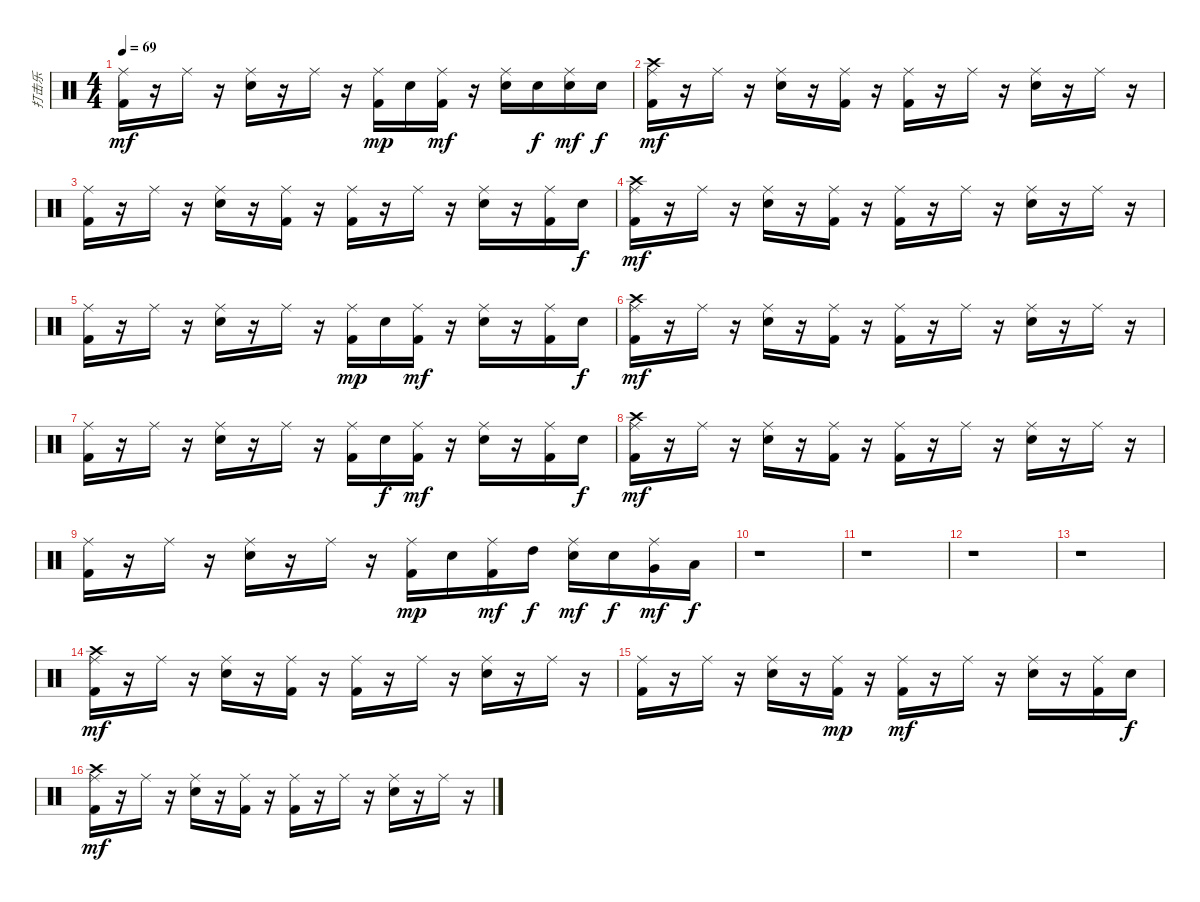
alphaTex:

\track ("打击乐" "打击乐") {instrument percussion}
\staff {score}
\articulation defaults
\ts (4 4)
\tempo 69
\clef neutral
\ks c
("Kick (hit) 2" "Ride (middle)").16{dy mf} r.16 "Ride (middle)".16 r.16 ("Electric Snare (hit)" "Ride (middle)").16 r.16 "Ride (middle)".16 r.16 ("Ride (middle)" "Kick (hit) 2").16{dy mp} "Electric Snare (hit)".16 ("Kick (hit) 2" "Ride (middle)").16{dy mf} r.16 ("Electric Snare (hit)" "Ride (middle)").16 "Electric Snare (hit)".16{dy f} ("Electric Snare (hit)" "Ride (middle)").16{dy mf} "Electric Snare (hit)".16{dy f} |
("Ride (middle)" "Kick (hit) 2" "Crash high (hit)").16{dy mf} r.16 "Ride (middle)".16 r.16 ("Electric Snare (hit)" "Ride (middle)").16 r.16 ("Ride (middle)" "Kick (hit) 2").16 r.16 ("Ride (middle)" "Kick (hit) 2").16 r.16 "Ride (middle)".16 r.16 ("Electric Snare (hit)" "Ride (middle)").16 r.16 "Ride (middle)".16 r.16 |
("Ride (middle)" "Kick (hit) 2").16 r.16 "Ride (middle)".16 r.16 ("Ride (middle)" "Electric Snare (hit)").16 r.16 ("Kick (hit) 2" "Ride (middle)").16 r.16 ("Kick (hit) 2" "Ride (middle)").16 r.16 "Ride (middle)".16 r.16 ("Electric Snare (hit)" "Ride (middle)").16 r.16 ("Kick (hit) 2" "Ride (middle)").16 "Electric Snare (hit)".16{dy f} |
("Crash high (hit)" "Ride (middle)" "Kick (hit) 2").16{dy mf} r.16 "Ride (middle)".16 r.16 ("Electric Snare (hit)" "Ride (middle)").16 r.16 ("Kick (hit) 2" "Ride (middle)").16 r.16 ("Kick (hit) 2" "Ride (middle)").16 r.16 "Ride (middle)".16 r.16 ("Electric Snare (hit)" "Ride (middle)").16 r.16 "Ride (middle)".16 r.16 |
("Kick (hit) 2" "Ride (middle)").16 r.16 "Ride (middle)".16 r.16 ("Electric Snare (hit)" "Ride (middle)").16 r.16 "Ride (middle)".16 r.16 ("Ride (middle)" "Kick (hit) 2").16{dy mp} "Electric Snare (hit)".16 ("Kick (hit) 2" "Ride (middle)").16{dy mf} r.16 ("Electric Snare (hit)" "Ride (middle)").16 r.16 ("Kick (hit) 2" "Ride (middle)").16 "Electric Snare (hit)".16{dy f} |
("Ride (middle)" "Kick (hit) 2" "Crash high (hit)").16{dy mf} r.16 "Ride (middle)".16 r.16 ("Electric Snare (hit)" "Ride (middle)").16 r.16 ("Ride (middle)" "Kick (hit) 2").16 r.16 ("Ride (middle)" "Kick (hit) 2").16 r.16 "Ride (middle)".16 r.16 ("Electric Snare (hit)" "Ride (middle)").16 r.16 "Ride (middle)".16 r.16 |
("Ride (middle)" "Kick (hit) 2").16 r.16 "Ride (middle)".16 r.16 ("Ride (middle)" "Electric Snare (hit)").16 r.16 "Ride (middle)".16 r.16 ("Kick (hit) 2" "Ride (middle)").16 "Electric Snare (hit)".16{dy f} ("Kick (hit) 2" "Ride (middle)").16{dy mf} r.16 ("Ride (middle)" "Electric Snare (hit)").16 r.16 ("Kick (hit) 2" "Ride (middle)").16 "Electric Snare (hit)".16{dy f} |
("Crash high (hit)" "Ride (middle)" "Kick (hit) 2").16{dy mf} r.16 "Ride (middle)".16 r.16 ("Electric Snare (hit)" "Ride (middle)").16 r.16 ("Kick (hit) 2" "Ride (middle)").16 r.16 ("Kick (hit) 2" "Ride (middle)").16 r.16 "Ride (middle)".16 r.16 ("Electric Snare (hit)" "Ride (middle)").16 r.16 "Ride (middle)".16 r.16 |
("Kick (hit) 2" "Ride (middle)").16 r.16 "Ride (middle)".16 r.16 ("Electric Snare (hit)" "Ride (middle)").16 r.16 "Ride (middle)".16 r.16 ("Ride (middle)" "Kick (hit) 2").16{dy mp} "Electric Snare (hit)".16 ("Kick (hit) 2" "Ride (middle)").16{dy mf} "High Tom (hit)".16{dy f} ("Electric Snare (hit)" "Ride (middle)").16{dy mf} "Electric Snare (hit)".16{dy f} ("Very Low Tom (hit)" "Ride (middle)").16{dy mf} "Low Floor Tom (hit)".16{dy f} |
r.1 |
r.1 |
r.1 |
r.1 |
("Crash high (hit)" "Ride (middle)" "Kick (hit) 2").16{dy mf} r.16 "Ride (middle)".16 r.16 ("Electric Snare (hit)" "Ride (middle)").16 r.16 ("Kick (hit) 2" "Ride (middle)").16 r.16 ("Kick (hit) 2" "Ride (middle)").16 r.16 "Ride (middle)".16 r.16 ("Electric Snare (hit)" "Ride (middle)").16 r.16 "Ride (middle)".16 r.16 |
("Kick (hit) 2" "Ride (middle)").16 r.16 "Ride (middle)".16 r.16 ("Electric Snare (hit)" "Ride (middle)").16 r.16 ("Ride (middle)" "Kick (hit) 2").16{dy mp} r.16 ("Ride (middle)" "Kick (hit) 2").16{dy mf} r.16 "Ride (middle)".16 r.16 ("Electric Snare (hit)" "Ride (middle)").16 r.16 ("Kick (hit) 2" "Ride (middle)").16 "Electric Snare (hit)".16{dy f} |
("Ride (middle)" "Kick (hit) 2" "Crash high (hit)").16{dy mf} r.16 "Ride (middle)".16 r.16 ("Electric Snare (hit)" "Ride (middle)").16 r.16 ("Ride (middle)" "Kick (hit) 2").16 r.16 ("Kick (hit) 2" "Ride (middle)").16 r.16 "Ride (middle)".16 r.16 ("Electric Snare (hit)" "Ride (middle)").16 r.16 "Ride (middle)".16 r.16
